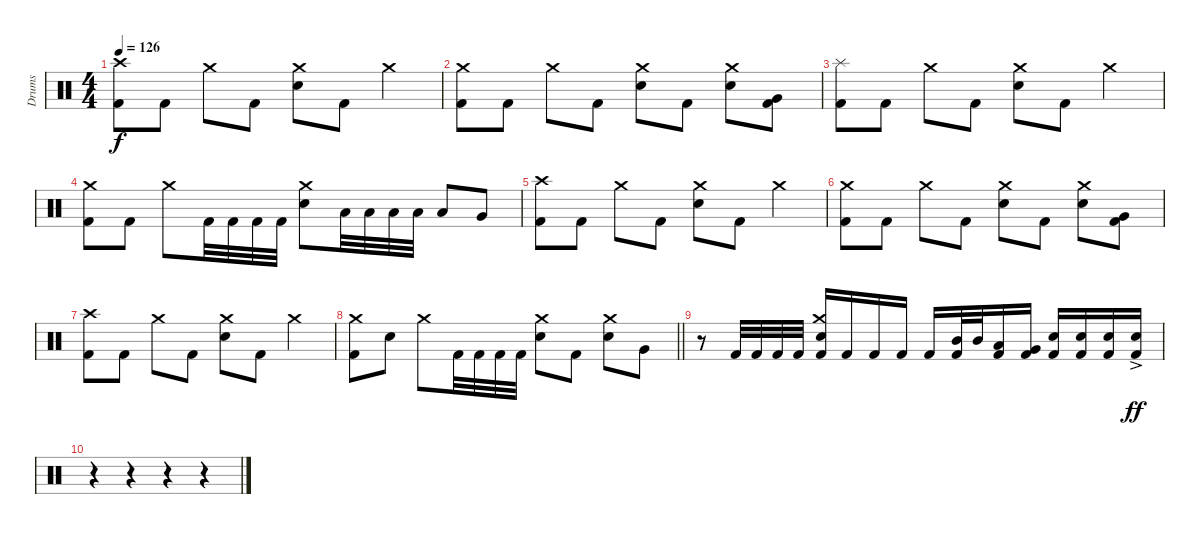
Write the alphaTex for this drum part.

\track ("Drums" "Drums") {instrument percussion}
\staff {score}
\articulation defaults
\ts (4 4)
\tempo 126
\clef neutral
\ks c
("Crash high (hit)" "Kick (hit) 2").8{dy f} "Kick (hit) 2".8 "Crash medium (hit)".8 "Kick (hit) 2".8 ("Crash medium (hit)" "Electric Snare (hit)").8 "Kick (hit) 2".8 "Crash medium (hit)".4 |
("Crash medium (hit)" "Kick (hit) 2").8 "Kick (hit) 2".8 "Crash medium (hit)".8 "Kick (hit) 2".8 ("Crash medium (hit)" "Electric Snare (hit)").8 "Kick (hit) 2".8 ("Crash medium (hit)" "Electric Snare (hit)").8 ("Very Low Tom (hit)" "Kick (hit) 2").8 |
("Splash (hit)" "Kick (hit) 2").8 "Kick (hit) 2".8 "Crash medium (hit)".8 "Kick (hit) 2".8 ("Crash medium (hit)" "Electric Snare (hit)").8 "Kick (hit) 2".8 "Crash medium (hit)".4 |
("Crash medium (hit)" "Kick (hit) 2").8 "Kick (hit) 2".8 "Crash medium (hit)".8 "Kick (hit) 2".32 "Kick (hit) 2".32 "Kick (hit) 2".32 "Kick (hit) 2".32 ("Crash medium (hit)" "Electric Snare (hit)").8 "Low Tom (hit)".32 "Low Tom (hit)".32 "Low Tom (hit)".32 "Low Tom (hit)".32 "Low Tom (hit)".8 "Very Low Tom (hit)".8 |
("Crash high (hit)" "Kick (hit) 2").8 "Kick (hit) 2".8 "Crash medium (hit)".8 "Kick (hit) 2".8 ("Crash medium (hit)" "Electric Snare (hit)").8 "Kick (hit) 2".8 "Crash medium (hit)".4 |
("Crash medium (hit)" "Kick (hit) 2").8 "Kick (hit) 2".8 "Crash medium (hit)".8 "Kick (hit) 2".8 ("Crash medium (hit)" "Electric Snare (hit)").8 "Kick (hit) 2".8 ("Crash medium (hit)" "Electric Snare (hit)").8 ("Very Low Tom (hit)" "Kick (hit) 2").8 |
("Crash high (hit)" "Kick (hit) 2").8 "Kick (hit) 2".8 "Crash medium (hit)".8 "Kick (hit) 2".8 ("Crash medium (hit)" "Electric Snare (hit)").8 "Kick (hit) 2".8 "Crash medium (hit)".4 |
\barLineRight lightlight
("Crash medium (hit)" "Kick (hit) 2").8 "Electric Snare (hit)".8 "Crash medium (hit)".8 "Kick (hit) 2".32 "Kick (hit) 2".32 "Kick (hit) 2".32 "Kick (hit) 2".32 ("Crash medium (hit)" "Electric Snare (hit)").8 "Kick (hit) 2".8 ("Crash medium (hit)" "Electric Snare (hit)").8 "Very Low Tom (hit)".8 |
r.8 "Kick (hit) 2".32 "Kick (hit) 2".32 "Kick (hit) 2".32 "Kick (hit) 2".32 ("Crash medium (hit)" "Electric Snare (hit)" "Kick (hit) 2").16 "Kick (hit) 2".16 "Kick (hit) 2".16 "Kick (hit) 2".16 "Kick (hit) 2".16 ("Mid Tom (hit)" "Kick (hit) 2").32 "Mid Tom (hit)".32 ("Low Tom (hit)" "Kick (hit) 2").16 ("Very Low Tom (hit)" "Kick (hit) 2").16 ("Electric Snare (hit)" "Kick (hit) 2").16 ("Electric Snare (hit)" "Kick (hit) 2").16 ("Electric Snare (hit)" "Kick (hit) 2").16 ("Electric Snare (hit)"{ac} "Kick (hit) 2"{ac}).16{dy ff} |
r.4 r.4 r.4 r.4
